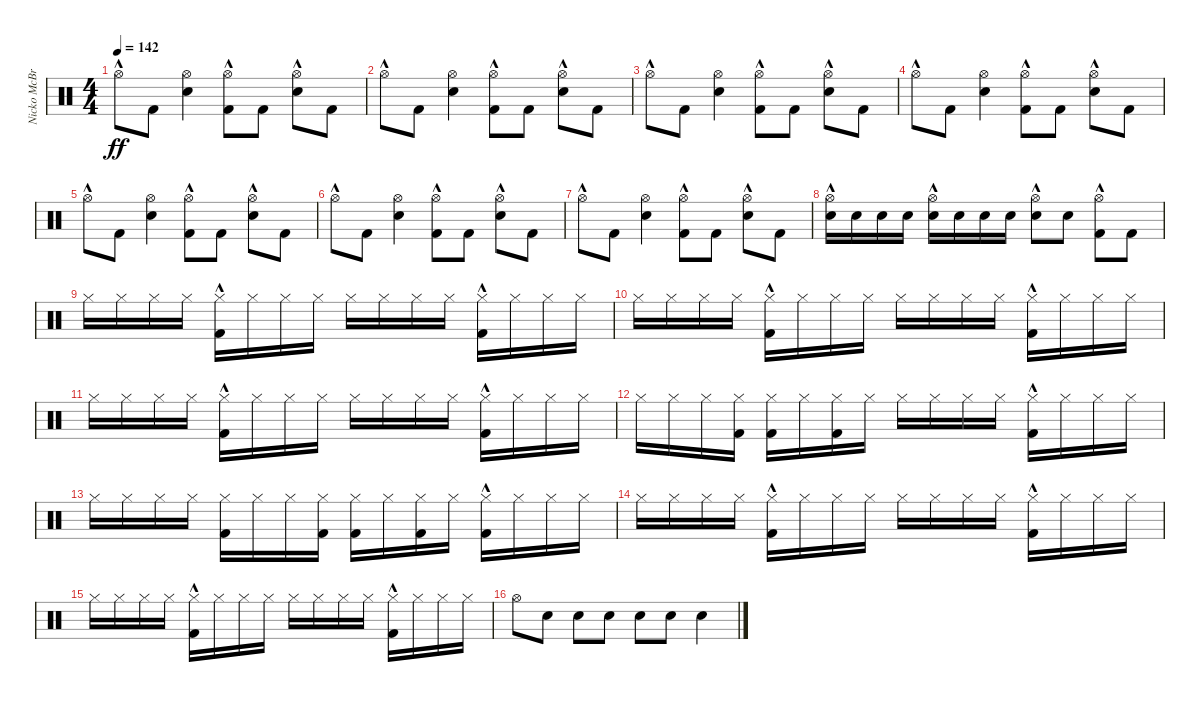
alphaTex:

\track ("Nicko McBrain" "Nicko McBr") {instrument percussion}
\staff {score}
\articulation defaults
\ts (4 4)
\tempo 142
\clef neutral
\ks c "Hi-Hat (open)"{hac}.8{dy ff} "Kick (hit) 2".8
("Snare (hit) 2" "Hi-Hat (open)").4 ("Kick (hit) 2" "Hi-Hat (open)"{hac}).8 "Kick (hit) 2".8 ("Snare (hit) 2" "Hi-Hat (open)"{hac}).8 "Kick (hit) 2".8 |
"Hi-Hat (open)"{hac}.8 "Kick (hit) 2".8 ("Snare (hit) 2" "Hi-Hat (open)").4 ("Kick (hit) 2" "Hi-Hat (open)"{hac}).8 "Kick (hit) 2".8 ("Snare (hit) 2" "Hi-Hat (open)"{hac}).8 "Kick (hit) 2".8 |
"Hi-Hat (open)"{hac}.8 "Kick (hit) 2".8 ("Snare (hit) 2" "Hi-Hat (open)").4 ("Kick (hit) 2" "Hi-Hat (open)"{hac}).8 "Kick (hit) 2".8 ("Snare (hit) 2" "Hi-Hat (open)"{hac}).8 "Kick (hit) 2".8 |
"Hi-Hat (open)"{hac}.8 "Kick (hit) 2".8 ("Snare (hit) 2" "Hi-Hat (open)").4 ("Kick (hit) 2" "Hi-Hat (open)"{hac}).8 "Kick (hit) 2".8 ("Snare (hit) 2" "Hi-Hat (open)"{hac}).8 "Kick (hit) 2".8 |
"Hi-Hat (open)"{hac}.8 "Kick (hit) 2".8 ("Snare (hit) 2" "Hi-Hat (open)").4 ("Kick (hit) 2" "Hi-Hat (open)"{hac}).8 "Kick (hit) 2".8 ("Snare (hit) 2" "Hi-Hat (open)"{hac}).8 "Kick (hit) 2".8 |
"Hi-Hat (open)"{hac}.8 "Kick (hit) 2".8 ("Snare (hit) 2" "Hi-Hat (open)").4 ("Kick (hit) 2" "Hi-Hat (open)"{hac}).8 "Kick (hit) 2".8 ("Snare (hit) 2" "Hi-Hat (open)"{hac}).8 "Kick (hit) 2".8 |
"Hi-Hat (open)"{hac}.8 "Kick (hit) 2".8 ("Snare (hit) 2" "Hi-Hat (open)").4 ("Kick (hit) 2" "Hi-Hat (open)"{hac}).8 "Kick (hit) 2".8 ("Snare (hit) 2" "Hi-Hat (open)"{hac}).8 "Kick (hit) 2".8 |
("Snare (hit) 2" "Hi-Hat (open)"{hac}).16 "Snare (hit) 2".16 "Snare (hit) 2".16 "Snare (hit) 2".16 ("Snare (hit) 2" "Hi-Hat (open)"{hac}).16 "Snare (hit) 2".16 "Snare (hit) 2".16 "Snare (hit) 2".16 ("Snare (hit) 2" "Hi-Hat (open)"{hac}).8 "Snare (hit) 2".8 ("Kick (hit) 2" "Hi-Hat (open)"{hac}).8 "Kick (hit) 2".8 |
"Hi-Hat (closed)".16 "Hi-Hat (closed)".16 "Hi-Hat (closed)".16 "Hi-Hat (closed)".16 ("Kick (hit) 2"{hac} "Hi-Hat (closed)").16 "Hi-Hat (closed)".16 "Hi-Hat (closed)".16 "Hi-Hat (closed)".16 "Hi-Hat (closed)".16 "Hi-Hat (closed)".16 "Hi-Hat (closed)".16 "Hi-Hat (closed)".16 ("Kick (hit) 2"{hac} "Hi-Hat (closed)").16 "Hi-Hat (closed)".16 "Hi-Hat (closed)".16 "Hi-Hat (closed)".16 |
"Hi-Hat (closed)".16 "Hi-Hat (closed)".16 "Hi-Hat (closed)".16 "Hi-Hat (closed)".16 ("Kick (hit) 2"{hac} "Hi-Hat (closed)").16 "Hi-Hat (closed)".16 "Hi-Hat (closed)".16 "Hi-Hat (closed)".16 "Hi-Hat (closed)".16 "Hi-Hat (closed)".16 "Hi-Hat (closed)".16 "Hi-Hat (closed)".16 ("Kick (hit) 2"{hac} "Hi-Hat (closed)").16 "Hi-Hat (closed)".16 "Hi-Hat (closed)".16 "Hi-Hat (closed)".16 |
"Hi-Hat (closed)".16 "Hi-Hat (closed)".16 "Hi-Hat (closed)".16 "Hi-Hat (closed)".16 ("Kick (hit) 2"{hac} "Hi-Hat (closed)").16 "Hi-Hat (closed)".16 "Hi-Hat (closed)".16 "Hi-Hat (closed)".16 "Hi-Hat (closed)".16 "Hi-Hat (closed)".16 "Hi-Hat (closed)".16 "Hi-Hat (closed)".16 ("Kick (hit) 2"{hac} "Hi-Hat (closed)").16 "Hi-Hat (closed)".16 "Hi-Hat (closed)".16 "Hi-Hat (closed)".16 |
"Hi-Hat (closed)".16 "Hi-Hat (closed)".16 "Hi-Hat (closed)".16 ("Kick (hit) 2" "Hi-Hat (closed)").16 ("Kick (hit) 2" "Hi-Hat (closed)").16 "Hi-Hat (closed)".16 ("Kick (hit) 2" "Hi-Hat (closed)").16 "Hi-Hat (closed)".16 "Hi-Hat (closed)".16 "Hi-Hat (closed)".16 "Hi-Hat (closed)".16 "Hi-Hat (closed)".16 ("Kick (hit) 2"{hac} "Hi-Hat (closed)").16 "Hi-Hat (closed)".16 "Hi-Hat (closed)".16 "Hi-Hat (closed)".16 |
"Hi-Hat (closed)".16 "Hi-Hat (closed)".16 "Hi-Hat (closed)".16 "Hi-Hat (closed)".16 ("Kick (hit) 2" "Hi-Hat (closed)").16 "Hi-Hat (closed)".16 "Hi-Hat (closed)".16 ("Kick (hit) 2" "Hi-Hat (closed)").16 ("Kick (hit) 2" "Hi-Hat (closed)").16 "Hi-Hat (closed)".16 ("Kick (hit) 2" "Hi-Hat (closed)").16 "Hi-Hat (closed)".16 ("Kick (hit) 2"{hac} "Hi-Hat (closed)").16 "Hi-Hat (closed)".16 "Hi-Hat (closed)".16 "Hi-Hat (closed)".16 |
"Hi-Hat (closed)".16 "Hi-Hat (closed)".16 "Hi-Hat (closed)".16 "Hi-Hat (closed)".16 ("Kick (hit) 2"{hac} "Hi-Hat (closed)").16 "Hi-Hat (closed)".16 "Hi-Hat (closed)".16 "Hi-Hat (closed)".16 "Hi-Hat (closed)".16 "Hi-Hat (closed)".16 "Hi-Hat (closed)".16 "Hi-Hat (closed)".16 ("Kick (hit) 2"{hac} "Hi-Hat (closed)").16 "Hi-Hat (closed)".16 "Hi-Hat (closed)".16 "Hi-Hat (closed)".16 |
"Hi-Hat (closed)".16 "Hi-Hat (closed)".16 "Hi-Hat (closed)".16 "Hi-Hat (closed)".16 ("Kick (hit) 2"{hac} "Hi-Hat (closed)").16 "Hi-Hat (closed)".16 "Hi-Hat (closed)".16 "Hi-Hat (closed)".16 "Hi-Hat (closed)".16 "Hi-Hat (closed)".16 "Hi-Hat (closed)".16 "Hi-Hat (closed)".16 ("Kick (hit) 2"{hac} "Hi-Hat (closed)").16 "Hi-Hat (closed)".16 "Hi-Hat (closed)".16 "Hi-Hat (closed)".16 |
"Hi-Hat (open)".8 "Snare (hit) 2".8{volume 0} "Snare (hit) 2".8{volume 4} "Snare (hit) 2".8{volume 8} "Snare (hit) 2".8{volume 12} "Snare (hit) 2".8{volume 16} "Snare (hit) 2".4
